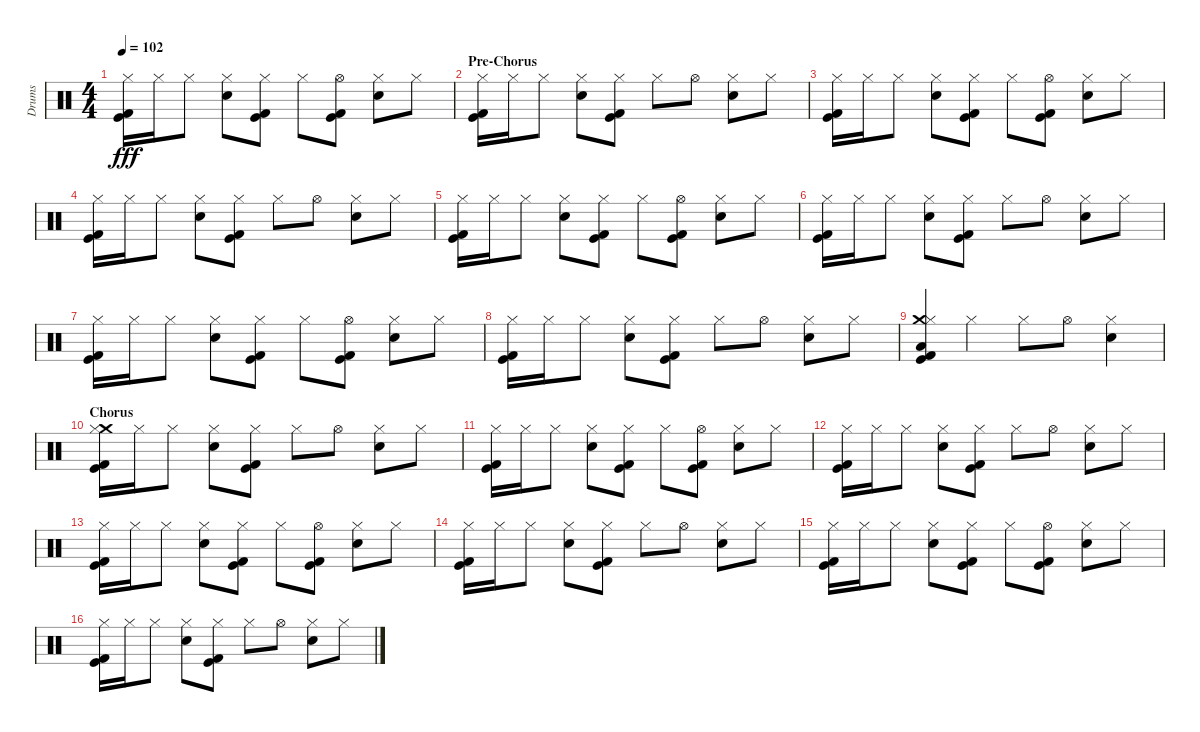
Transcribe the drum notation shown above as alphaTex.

\track ("Drums" "Drums") {instrument percussion}
\staff {score}
\articulation defaults
\ts (4 4)
\tempo 102
\clef neutral
\ks c
("Kick (hit) 2" "Kick (hit)" "Hi-Hat (closed)").16{dy fff} "Hi-Hat (closed)".16 "Hi-Hat (closed)".8 ("Hand Clap (hit)" "Hi-Hat (closed)").8 ("Kick (hit) 2" "Kick (hit)" "Hi-Hat (closed)").8 "Hi-Hat (closed)".8 ("Kick (hit) 2" "Kick (hit)" "Hi-Hat (open)").8 ("Hand Clap (hit)" "Hi-Hat (closed)").8 "Hi-Hat (closed)".8 |
\section ("" "Pre-Chorus")
("Kick (hit) 2" "Kick (hit)" "Hi-Hat (closed)").16 "Hi-Hat (closed)".16 "Hi-Hat (closed)".8 ("Hand Clap (hit)" "Hi-Hat (closed)").8 ("Kick (hit) 2" "Kick (hit)" "Hi-Hat (closed)").8 "Hi-Hat (closed)".8 "Hi-Hat (open)".8 ("Hand Clap (hit)" "Hi-Hat (closed)").8 "Hi-Hat (closed)".8 |
("Kick (hit) 2" "Kick (hit)" "Hi-Hat (closed)").16 "Hi-Hat (closed)".16 "Hi-Hat (closed)".8 ("Hand Clap (hit)" "Hi-Hat (closed)").8 ("Kick (hit) 2" "Kick (hit)" "Hi-Hat (closed)").8 "Hi-Hat (closed)".8 ("Kick (hit) 2" "Kick (hit)" "Hi-Hat (open)").8 ("Hand Clap (hit)" "Hi-Hat (closed)").8 "Hi-Hat (closed)".8 |
("Kick (hit) 2" "Kick (hit)" "Hi-Hat (closed)").16 "Hi-Hat (closed)".16 "Hi-Hat (closed)".8 ("Hand Clap (hit)" "Hi-Hat (closed)").8 ("Kick (hit) 2" "Kick (hit)" "Hi-Hat (closed)").8 "Hi-Hat (closed)".8 "Hi-Hat (open)".8 ("Hand Clap (hit)" "Hi-Hat (closed)").8 "Hi-Hat (closed)".8 |
("Kick (hit) 2" "Kick (hit)" "Hi-Hat (closed)").16 "Hi-Hat (closed)".16 "Hi-Hat (closed)".8 ("Hand Clap (hit)" "Hi-Hat (closed)").8 ("Kick (hit) 2" "Kick (hit)" "Hi-Hat (closed)").8 "Hi-Hat (closed)".8 ("Kick (hit) 2" "Kick (hit)" "Hi-Hat (open)").8 ("Hand Clap (hit)" "Hi-Hat (closed)").8 "Hi-Hat (closed)".8 |
("Kick (hit) 2" "Kick (hit)" "Hi-Hat (closed)").16 "Hi-Hat (closed)".16 "Hi-Hat (closed)".8 ("Hand Clap (hit)" "Hi-Hat (closed)").8 ("Kick (hit) 2" "Kick (hit)" "Hi-Hat (closed)").8 "Hi-Hat (closed)".8 "Hi-Hat (open)".8 ("Hand Clap (hit)" "Hi-Hat (closed)").8 "Hi-Hat (closed)".8 |
("Kick (hit) 2" "Kick (hit)" "Hi-Hat (closed)").16 "Hi-Hat (closed)".16 "Hi-Hat (closed)".8 ("Hand Clap (hit)" "Hi-Hat (closed)").8 ("Kick (hit) 2" "Kick (hit)" "Hi-Hat (closed)").8 "Hi-Hat (closed)".8 ("Kick (hit) 2" "Kick (hit)" "Hi-Hat (open)").8 ("Hand Clap (hit)" "Hi-Hat (closed)").8 "Hi-Hat (closed)".8 |
("Kick (hit) 2" "Kick (hit)" "Hi-Hat (closed)").16 "Hi-Hat (closed)".16 "Hi-Hat (closed)".8 ("Hand Clap (hit)" "Hi-Hat (closed)").8 ("Kick (hit) 2" "Kick (hit)" "Hi-Hat (closed)").8 "Hi-Hat (closed)".8 "Hi-Hat (open)".8 ("Hand Clap (hit)" "Hi-Hat (closed)").8 "Hi-Hat (closed)".8 |
("Kick (hit) 2" "Kick (hit)" "Crash medium (hit)" "Low Tom (hit)" "Hi-Hat (closed)").4 "Hi-Hat (closed)".4 "Hi-Hat (closed)".8 "Hi-Hat (open)".8 ("Hand Clap (hit)" "Hi-Hat (closed)").4 |
\section ("" "Chorus")
("Crash medium (hit)" "Kick (hit) 2" "Kick (hit)" "Hi-Hat (closed)").16 "Hi-Hat (closed)".16 "Hi-Hat (closed)".8 ("Hand Clap (hit)" "Hi-Hat (closed)").8 ("Kick (hit) 2" "Kick (hit)" "Hi-Hat (closed)").8 "Hi-Hat (closed)".8 "Hi-Hat (open)".8 ("Hand Clap (hit)" "Hi-Hat (closed)").8 "Hi-Hat (closed)".8 |
("Kick (hit) 2" "Kick (hit)" "Hi-Hat (closed)").16 "Hi-Hat (closed)".16 "Hi-Hat (closed)".8 ("Hand Clap (hit)" "Hi-Hat (closed)").8 ("Kick (hit) 2" "Kick (hit)" "Hi-Hat (closed)").8 "Hi-Hat (closed)".8 ("Kick (hit) 2" "Kick (hit)" "Hi-Hat (open)").8 ("Hand Clap (hit)" "Hi-Hat (closed)").8 "Hi-Hat (closed)".8 |
("Kick (hit) 2" "Kick (hit)" "Hi-Hat (closed)").16 "Hi-Hat (closed)".16 "Hi-Hat (closed)".8 ("Hand Clap (hit)" "Hi-Hat (closed)").8 ("Kick (hit) 2" "Kick (hit)" "Hi-Hat (closed)").8 "Hi-Hat (closed)".8 "Hi-Hat (open)".8 ("Hand Clap (hit)" "Hi-Hat (closed)").8 "Hi-Hat (closed)".8 |
("Kick (hit) 2" "Kick (hit)" "Hi-Hat (closed)").16 "Hi-Hat (closed)".16 "Hi-Hat (closed)".8 ("Hand Clap (hit)" "Hi-Hat (closed)").8 ("Kick (hit) 2" "Kick (hit)" "Hi-Hat (closed)").8 "Hi-Hat (closed)".8 ("Kick (hit) 2" "Kick (hit)" "Hi-Hat (open)").8 ("Hand Clap (hit)" "Hi-Hat (closed)").8 "Hi-Hat (closed)".8 |
("Kick (hit) 2" "Kick (hit)" "Hi-Hat (closed)").16 "Hi-Hat (closed)".16 "Hi-Hat (closed)".8 ("Hand Clap (hit)" "Hi-Hat (closed)").8 ("Kick (hit) 2" "Kick (hit)" "Hi-Hat (closed)").8 "Hi-Hat (closed)".8 "Hi-Hat (open)".8 ("Hand Clap (hit)" "Hi-Hat (closed)").8 "Hi-Hat (closed)".8 |
("Kick (hit) 2" "Kick (hit)" "Hi-Hat (closed)").16 "Hi-Hat (closed)".16 "Hi-Hat (closed)".8 ("Hand Clap (hit)" "Hi-Hat (closed)").8 ("Kick (hit) 2" "Kick (hit)" "Hi-Hat (closed)").8 "Hi-Hat (closed)".8 ("Kick (hit) 2" "Kick (hit)" "Hi-Hat (open)").8 ("Hand Clap (hit)" "Hi-Hat (closed)").8 "Hi-Hat (closed)".8 |
("Kick (hit) 2" "Kick (hit)" "Hi-Hat (closed)").16 "Hi-Hat (closed)".16 "Hi-Hat (closed)".8 ("Hand Clap (hit)" "Hi-Hat (closed)").8 ("Kick (hit) 2" "Kick (hit)" "Hi-Hat (closed)").8 "Hi-Hat (closed)".8 "Hi-Hat (open)".8 ("Hand Clap (hit)" "Hi-Hat (closed)").8 "Hi-Hat (closed)".8
